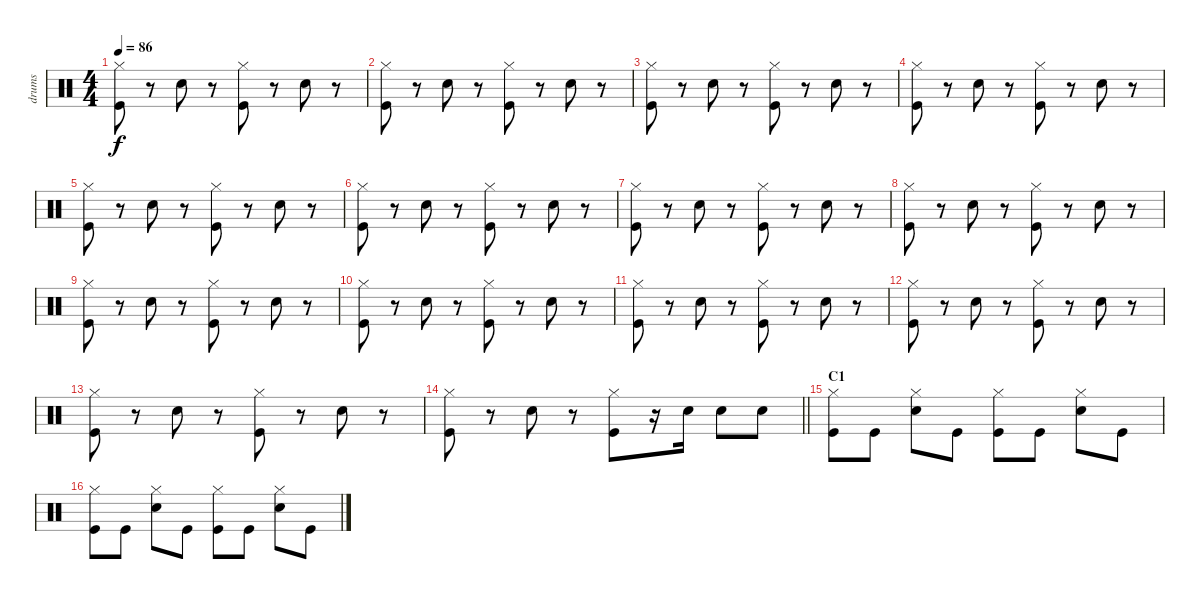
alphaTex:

\track ("drums" "drums") {instrument percussion}
\staff {score}
\articulation defaults
\ts (4 4)
\tempo 86
\clef neutral
\ks c
("Hi-Hat (closed)" "Kick (hit)").8{dy f} r.8 "Snare (hit) 2".8 r.8 ("Hi-Hat (closed)" "Kick (hit)").8 r.8 "Snare (hit) 2".8 r.8 |
("Hi-Hat (closed)" "Kick (hit)").8 r.8 "Snare (hit) 2".8 r.8 ("Hi-Hat (closed)" "Kick (hit)").8 r.8 "Snare (hit) 2".8 r.8 |
("Hi-Hat (closed)" "Kick (hit)").8 r.8 "Snare (hit) 2".8 r.8 ("Hi-Hat (closed)" "Kick (hit)").8 r.8 "Snare (hit) 2".8 r.8 |
("Hi-Hat (closed)" "Kick (hit)").8 r.8 "Snare (hit) 2".8 r.8 ("Hi-Hat (closed)" "Kick (hit)").8 r.8 "Snare (hit) 2".8 r.8 |
("Hi-Hat (closed)" "Kick (hit)").8 r.8 "Snare (hit) 2".8 r.8 ("Hi-Hat (closed)" "Kick (hit)").8 r.8 "Snare (hit) 2".8 r.8 |
("Hi-Hat (closed)" "Kick (hit)").8 r.8 "Snare (hit) 2".8 r.8 ("Hi-Hat (closed)" "Kick (hit)").8 r.8 "Snare (hit) 2".8 r.8 |
("Hi-Hat (closed)" "Kick (hit)").8 r.8 "Snare (hit) 2".8 r.8 ("Hi-Hat (closed)" "Kick (hit)").8 r.8 "Snare (hit) 2".8 r.8 |
("Hi-Hat (closed)" "Kick (hit)").8 r.8 "Snare (hit) 2".8 r.8 ("Hi-Hat (closed)" "Kick (hit)").8 r.8 "Snare (hit) 2".8 r.8 |
("Hi-Hat (closed)" "Kick (hit)").8 r.8 "Snare (hit) 2".8 r.8 ("Hi-Hat (closed)" "Kick (hit)").8 r.8 "Snare (hit) 2".8 r.8 |
("Hi-Hat (closed)" "Kick (hit)").8 r.8 "Snare (hit) 2".8 r.8 ("Hi-Hat (closed)" "Kick (hit)").8 r.8 "Snare (hit) 2".8 r.8 |
("Hi-Hat (closed)" "Kick (hit)").8 r.8 "Snare (hit) 2".8 r.8 ("Hi-Hat (closed)" "Kick (hit)").8 r.8 "Snare (hit) 2".8 r.8 |
("Hi-Hat (closed)" "Kick (hit)").8 r.8 "Snare (hit) 2".8 r.8 ("Hi-Hat (closed)" "Kick (hit)").8 r.8 "Snare (hit) 2".8 r.8 |
("Hi-Hat (closed)" "Kick (hit)").8 r.8 "Snare (hit) 2".8 r.8 ("Hi-Hat (closed)" "Kick (hit)").8 r.8 "Snare (hit) 2".8 r.8 |
\barLineRight lightlight
("Hi-Hat (closed)" "Kick (hit)").8 r.8 "Snare (hit) 2".8 r.8 ("Hi-Hat (closed)" "Kick (hit)").8 r.16 "Snare (hit) 2".16 "Snare (hit) 2".8 "Snare (hit) 2".8 |
\section ("" "C1")
("Hi-Hat (closed)" "Kick (hit)").8 "Kick (hit)".8 ("Snare (hit) 2" "Hi-Hat (closed)").8 "Kick (hit)".8 ("Hi-Hat (closed)" "Kick (hit)").8 "Kick (hit)".8 ("Snare (hit) 2" "Hi-Hat (closed)").8 "Kick (hit)".8 |
("Hi-Hat (closed)" "Kick (hit)").8 "Kick (hit)".8 ("Snare (hit) 2" "Hi-Hat (closed)").8 "Kick (hit)".8 ("Hi-Hat (closed)" "Kick (hit)").8 "Kick (hit)".8 ("Snare (hit) 2" "Hi-Hat (closed)").8 "Kick (hit)".8
